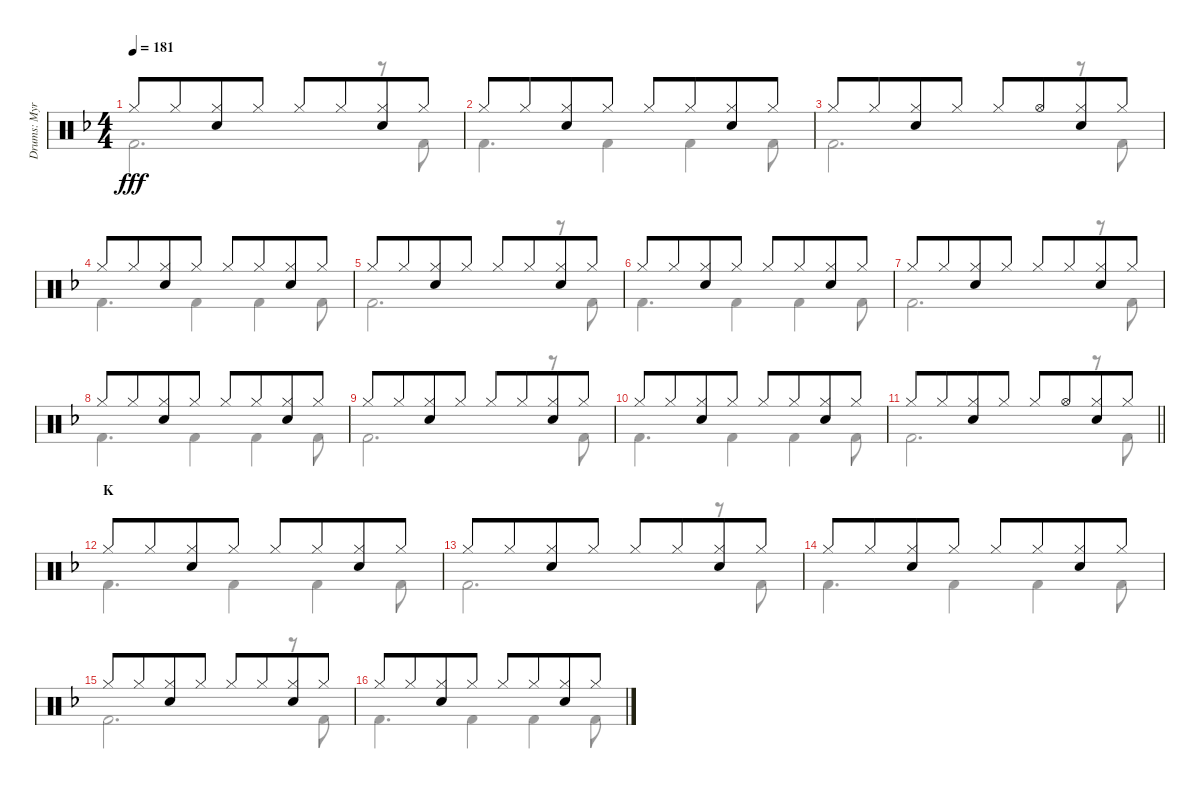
\track ("Drums: Myron" "Drums: Myr") {instrument percussion}
\staff {score}
\articulation defaults
\voice
\ts (4 4)
\tempo 181
\clef neutral
\ks f "Hi-Hat (closed)".8{dy fff} "Hi-Hat (closed)".8{beam merge}
("Hi-Hat (closed)" "Electric Snare (hit)").8 "Hi-Hat (closed)".8 "Hi-Hat (closed)".8 "Hi-Hat (closed)".8{beam merge} ("Hi-Hat (closed)" "Electric Snare (hit)").8 "Hi-Hat (closed)".8 |
"Hi-Hat (closed)".8 "Hi-Hat (closed)".8{beam merge} ("Hi-Hat (closed)" "Electric Snare (hit)").8 "Hi-Hat (closed)".8 "Hi-Hat (closed)".8 "Hi-Hat (closed)".8{beam merge} ("Hi-Hat (closed)" "Electric Snare (hit)").8 "Hi-Hat (closed)".8 |
"Hi-Hat (closed)".8 "Hi-Hat (closed)".8{beam merge} ("Hi-Hat (closed)" "Electric Snare (hit)").8 "Hi-Hat (closed)".8 "Hi-Hat (closed)".8 "Hi-Hat (open)".8{beam merge} ("Hi-Hat (closed)" "Electric Snare (hit)").8 "Hi-Hat (closed)".8 |
"Hi-Hat (closed)".8 "Hi-Hat (closed)".8{beam merge} ("Hi-Hat (closed)" "Electric Snare (hit)").8 "Hi-Hat (closed)".8 "Hi-Hat (closed)".8 "Hi-Hat (closed)".8{beam merge} ("Hi-Hat (closed)" "Electric Snare (hit)").8 "Hi-Hat (closed)".8 |
"Hi-Hat (closed)".8 "Hi-Hat (closed)".8{beam merge} ("Hi-Hat (closed)" "Electric Snare (hit)").8 "Hi-Hat (closed)".8 "Hi-Hat (closed)".8 "Hi-Hat (closed)".8{beam merge} ("Hi-Hat (closed)" "Electric Snare (hit)").8 "Hi-Hat (closed)".8 |
"Hi-Hat (closed)".8 "Hi-Hat (closed)".8{beam merge} ("Hi-Hat (closed)" "Electric Snare (hit)").8 "Hi-Hat (closed)".8 "Hi-Hat (closed)".8 "Hi-Hat (closed)".8{beam merge} ("Hi-Hat (closed)" "Electric Snare (hit)").8 "Hi-Hat (closed)".8 |
"Hi-Hat (closed)".8 "Hi-Hat (closed)".8{beam merge} ("Hi-Hat (closed)" "Electric Snare (hit)").8 "Hi-Hat (closed)".8 "Hi-Hat (closed)".8 "Hi-Hat (closed)".8{beam merge} ("Hi-Hat (closed)" "Electric Snare (hit)").8 "Hi-Hat (closed)".8 |
"Hi-Hat (closed)".8 "Hi-Hat (closed)".8{beam merge} ("Hi-Hat (closed)" "Electric Snare (hit)").8 "Hi-Hat (closed)".8 "Hi-Hat (closed)".8 "Hi-Hat (closed)".8{beam merge} ("Hi-Hat (closed)" "Electric Snare (hit)").8 "Hi-Hat (closed)".8 |
"Hi-Hat (closed)".8 "Hi-Hat (closed)".8{beam merge} ("Hi-Hat (closed)" "Electric Snare (hit)").8 "Hi-Hat (closed)".8 "Hi-Hat (closed)".8 "Hi-Hat (closed)".8{beam merge} ("Hi-Hat (closed)" "Electric Snare (hit)").8 "Hi-Hat (closed)".8 |
"Hi-Hat (closed)".8 "Hi-Hat (closed)".8{beam merge} ("Hi-Hat (closed)" "Electric Snare (hit)").8 "Hi-Hat (closed)".8 "Hi-Hat (closed)".8 "Hi-Hat (closed)".8{beam merge} ("Hi-Hat (closed)" "Electric Snare (hit)").8 "Hi-Hat (closed)".8 |
\barLineRight lightlight "Hi-Hat (closed)".8 "Hi-Hat (closed)".8{beam merge}
("Hi-Hat (closed)" "Electric Snare (hit)").8 "Hi-Hat (closed)".8 "Hi-Hat (closed)".8 "Hi-Hat (open)".8{beam merge} ("Hi-Hat (closed)" "Electric Snare (hit)").8 "Hi-Hat (closed)".8 |
\section ("" "K")
"Hi-Hat (closed)".8 "Hi-Hat (closed)".8{beam merge} ("Hi-Hat (closed)" "Electric Snare (hit)").8 "Hi-Hat (closed)".8 "Hi-Hat (closed)".8 "Hi-Hat (closed)".8{beam merge} ("Hi-Hat (closed)" "Electric Snare (hit)").8 "Hi-Hat (closed)".8 |
"Hi-Hat (closed)".8 "Hi-Hat (closed)".8{beam merge} ("Hi-Hat (closed)" "Electric Snare (hit)").8 "Hi-Hat (closed)".8 "Hi-Hat (closed)".8 "Hi-Hat (closed)".8{beam merge} ("Hi-Hat (closed)" "Electric Snare (hit)").8 "Hi-Hat (closed)".8 |
"Hi-Hat (closed)".8 "Hi-Hat (closed)".8{beam merge} ("Hi-Hat (closed)" "Electric Snare (hit)").8 "Hi-Hat (closed)".8 "Hi-Hat (closed)".8 "Hi-Hat (closed)".8{beam merge} ("Hi-Hat (closed)" "Electric Snare (hit)").8 "Hi-Hat (closed)".8 |
"Hi-Hat (closed)".8 "Hi-Hat (closed)".8{beam merge} ("Hi-Hat (closed)" "Electric Snare (hit)").8 "Hi-Hat (closed)".8 "Hi-Hat (closed)".8 "Hi-Hat (closed)".8{beam merge} ("Hi-Hat (closed)" "Electric Snare (hit)").8 "Hi-Hat (closed)".8 |
"Hi-Hat (closed)".8 "Hi-Hat (closed)".8{beam merge} ("Hi-Hat (closed)" "Electric Snare (hit)").8 "Hi-Hat (closed)".8 "Hi-Hat (closed)".8 "Hi-Hat (closed)".8{beam merge} ("Hi-Hat (closed)" "Electric Snare (hit)").8 "Hi-Hat (closed)".8
\voice
\clef neutral
\ottava regular
\simile none
\ks f "Kick (hit) 2".2{d dy fff}
r.8 "Kick (hit) 2".8 |
"Kick (hit) 2".4{d} "Kick (hit) 2".4 "Kick (hit) 2".4 "Kick (hit) 2".8 |
"Kick (hit) 2".2{d} r.8 "Kick (hit) 2".8 |
"Kick (hit) 2".4{d} "Kick (hit) 2".4 "Kick (hit) 2".4 "Kick (hit) 2".8 |
"Kick (hit) 2".2{d} r.8 "Kick (hit) 2".8 |
"Kick (hit) 2".4{d} "Kick (hit) 2".4 "Kick (hit) 2".4 "Kick (hit) 2".8 |
"Kick (hit) 2".2{d} r.8 "Kick (hit) 2".8 |
"Kick (hit) 2".4{d} "Kick (hit) 2".4 "Kick (hit) 2".4 "Kick (hit) 2".8 |
"Kick (hit) 2".2{d} r.8 "Kick (hit) 2".8 |
"Kick (hit) 2".4{d} "Kick (hit) 2".4 "Kick (hit) 2".4 "Kick (hit) 2".8 |
\barLineRight lightlight "Kick (hit) 2".2{d}
r.8 "Kick (hit) 2".8 |
"Kick (hit) 2".4{d} "Kick (hit) 2".4 "Kick (hit) 2".4 "Kick (hit) 2".8 |
"Kick (hit) 2".2{d} r.8 "Kick (hit) 2".8 |
"Kick (hit) 2".4{d} "Kick (hit) 2".4 "Kick (hit) 2".4 "Kick (hit) 2".8 |
"Kick (hit) 2".2{d} r.8 "Kick (hit) 2".8 |
"Kick (hit) 2".4{d} "Kick (hit) 2".4 "Kick (hit) 2".4 "Kick (hit) 2".8
